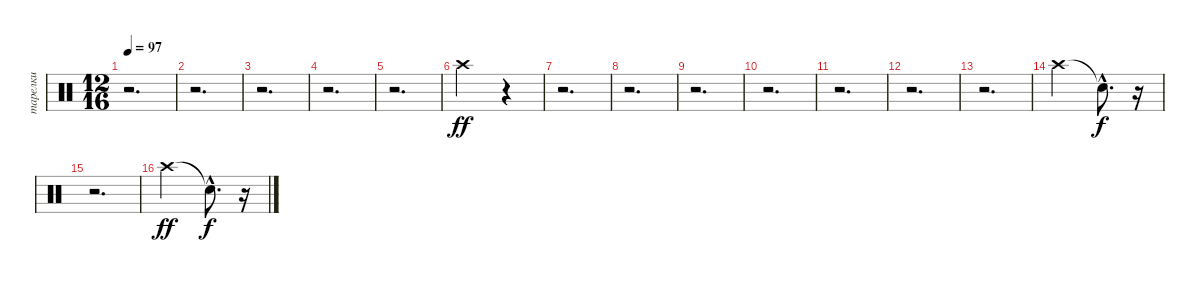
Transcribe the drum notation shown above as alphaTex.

\track ("тарелки" "тарелки") {instrument percussion}
\staff {score}
\articulation defaults
\ts (12 16)
\tempo 97
\clef neutral
\ks c
r.2{d dy f} |
r.2{d} |
r.2{d} |
r.2{d} |
r.2{d} |
"Crash high (hit)".2{dy ff} r.4 |
r.2{d} |
r.2{d} |
r.2{d} |
r.2{d} |
r.2{d} |
r.2{d} |
r.2{d} |
"Crash high (hit)".2 "Snare (hit)"{hac t}.8{d dy f} r.16 |
r.2{d} |
"Crash high (hit)".2{dy ff} "Snare (hit)"{hac t}.8{d dy f} r.16
